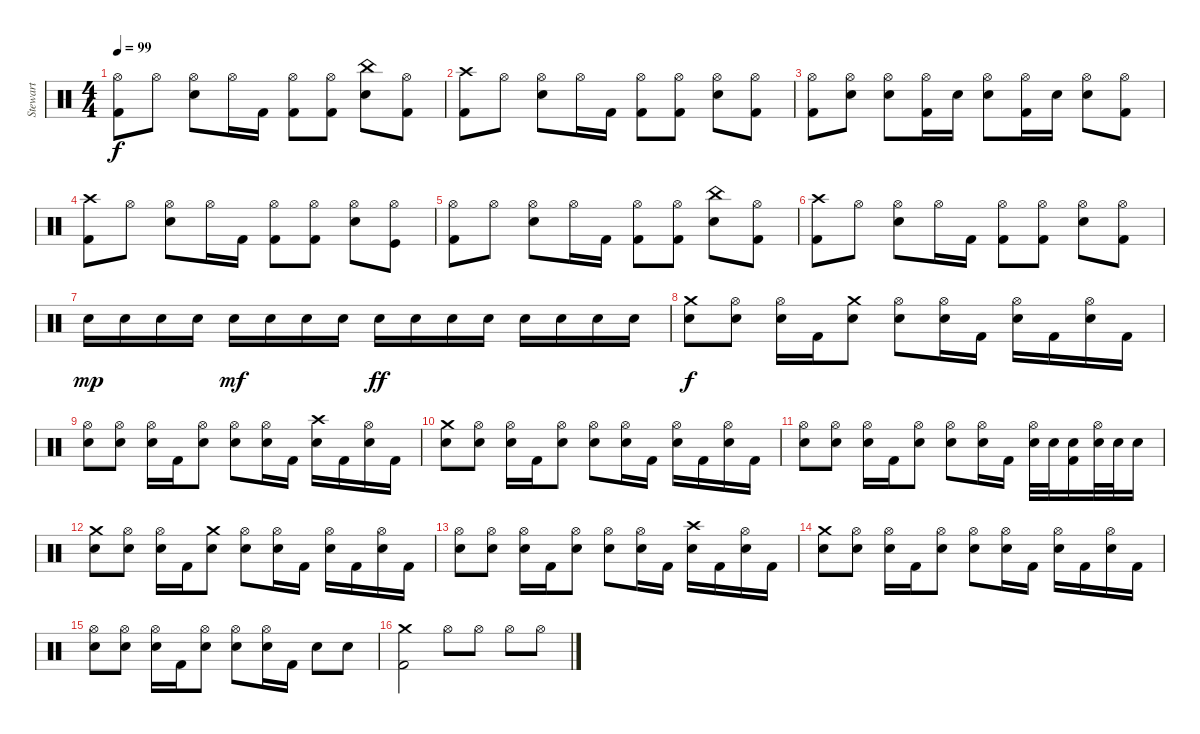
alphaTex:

\track ("Stewart" "Stewart") {instrument percussion}
\staff {score}
\articulation defaults
\ts (4 4)
\tempo 99
\clef neutral
\ks c
("Hi-Hat (open)" "Kick (hit) 2").8{dy f} "Hi-Hat (open)".8 ("Hi-Hat (open)" "Snare (hit) 2").8 "Hi-Hat (open)".16 "Kick (hit) 2".16 ("Hi-Hat (open)" "Kick (hit) 2").8 ("Hi-Hat (open)" "Kick (hit) 2").8 ("China (hit)" "Snare (hit) 2").8 ("Hi-Hat (open)" "Kick (hit) 2").8 |
("Crash high (hit)" "Kick (hit) 2").8 "Hi-Hat (open)".8 ("Hi-Hat (open)" "Snare (hit) 2").8 "Hi-Hat (open)".16 "Kick (hit) 2".16 ("Hi-Hat (open)" "Kick (hit) 2").8 ("Hi-Hat (open)" "Kick (hit) 2").8 ("Hi-Hat (open)" "Snare (hit) 2").8 ("Hi-Hat (open)" "Kick (hit) 2").8 |
("Hi-Hat (open)" "Kick (hit) 2").8 ("Hi-Hat (open)" "Snare (hit) 2").8 ("Hi-Hat (open)" "Snare (hit) 2").8 ("Hi-Hat (open)" "Kick (hit) 2").16 "Snare (hit) 2".16 ("Hi-Hat (open)" "Snare (hit) 2").8 ("Hi-Hat (open)" "Kick (hit) 2").16 "Snare (hit) 2".16 ("Hi-Hat (open)" "Snare (hit) 2").8 ("Hi-Hat (open)" "Kick (hit) 2").8 |
("Crash high (hit)" "Kick (hit) 2").8 "Hi-Hat (open)".8 ("Hi-Hat (open)" "Snare (hit) 2").8 "Hi-Hat (open)".16 "Kick (hit) 2".16 ("Hi-Hat (open)" "Kick (hit) 2").8 ("Hi-Hat (open)" "Kick (hit) 2").8 ("Hi-Hat (open)" "Snare (hit) 2").8 ("Hi-Hat (open)" "Kick (hit)").8 |
("Hi-Hat (open)" "Kick (hit) 2").8 "Hi-Hat (open)".8 ("Hi-Hat (open)" "Snare (hit) 2").8 "Hi-Hat (open)".16 "Kick (hit) 2".16 ("Hi-Hat (open)" "Kick (hit) 2").8 ("Hi-Hat (open)" "Kick (hit) 2").8 ("China (hit)" "Snare (hit) 2").8 ("Hi-Hat (open)" "Kick (hit) 2").8 |
("Crash high (hit)" "Kick (hit) 2").8 "Hi-Hat (open)".8 ("Hi-Hat (open)" "Snare (hit) 2").8 "Hi-Hat (open)".16 "Kick (hit) 2".16 ("Hi-Hat (open)" "Kick (hit) 2").8 ("Hi-Hat (open)" "Kick (hit) 2").8 ("Hi-Hat (open)" "Snare (hit) 2").8 ("Hi-Hat (open)" "Kick (hit) 2").8 |
"Snare (hit) 2".16{dy mp} "Snare (hit) 2".16 "Snare (hit) 2".16 "Snare (hit) 2".16 "Snare (hit) 2".16{dy mf} "Snare (hit) 2".16 "Snare (hit) 2".16 "Snare (hit) 2".16 "Snare (hit) 2".16{dy ff} "Snare (hit) 2".16 "Snare (hit) 2".16 "Snare (hit) 2".16 "Snare (hit) 2".16 "Snare (hit) 2".16 "Snare (hit) 2".16 "Snare (hit) 2".16 |
("Crash medium (hit)" "Snare (hit) 2").8{dy f} ("Hi-Hat (open)" "Snare (hit) 2").8 ("Hi-Hat (open)" "Snare (hit) 2").16 "Kick (hit) 2".16 ("Crash medium (hit)" "Snare (hit) 2").8 ("Hi-Hat (open)" "Snare (hit) 2").8 ("Hi-Hat (open)" "Snare (hit) 2").16 "Kick (hit) 2".16 ("Hi-Hat (open)" "Snare (hit) 2").16 "Kick (hit) 2".16 ("Hi-Hat (open)" "Snare (hit) 2").16 "Kick (hit) 2".16 |
("Hi-Hat (open)" "Snare (hit) 2").8 ("Hi-Hat (open)" "Snare (hit) 2").8 ("Hi-Hat (open)" "Snare (hit) 2").16 "Kick (hit) 2".16 ("Hi-Hat (open)" "Snare (hit) 2").8 ("Hi-Hat (open)" "Snare (hit) 2").8 ("Hi-Hat (open)" "Snare (hit) 2").16 "Kick (hit) 2".16 ("Crash high (hit)" "Snare (hit) 2").16 "Kick (hit) 2".16 ("Hi-Hat (open)" "Snare (hit) 2").16 "Kick (hit) 2".16 |
("Crash medium (hit)" "Snare (hit) 2").8 ("Hi-Hat (open)" "Snare (hit) 2").8 ("Hi-Hat (open)" "Snare (hit) 2").16 "Kick (hit) 2".16 ("Hi-Hat (open)" "Snare (hit) 2").8 ("Hi-Hat (open)" "Snare (hit) 2").8 ("Hi-Hat (open)" "Snare (hit) 2").16 "Kick (hit) 2".16 ("Hi-Hat (open)" "Snare (hit) 2").16 "Kick (hit) 2".16 ("Hi-Hat (open)" "Snare (hit) 2").16 "Kick (hit) 2".16 |
("Hi-Hat (open)" "Snare (hit) 2").8 ("Hi-Hat (open)" "Snare (hit) 2").8 ("Hi-Hat (open)" "Snare (hit) 2").16 "Kick (hit) 2".16 ("Hi-Hat (open)" "Snare (hit) 2").8 ("Hi-Hat (open)" "Snare (hit) 2").8 ("Hi-Hat (open)" "Snare (hit) 2").16 "Kick (hit) 2".16 ("Hi-Hat (open)" "Snare (hit) 2").32 "Snare (hit) 2".32 ("Snare (hit) 2" "Kick (hit) 2").16 ("Hi-Hat (open)" "Snare (hit) 2").32 "Snare (hit) 2".32 "Snare (hit) 2".16 |
("Crash medium (hit)" "Snare (hit) 2").8 ("Hi-Hat (open)" "Snare (hit) 2").8 ("Hi-Hat (open)" "Snare (hit) 2").16 "Kick (hit) 2".16 ("Crash medium (hit)" "Snare (hit) 2").8 ("Hi-Hat (open)" "Snare (hit) 2").8 ("Hi-Hat (open)" "Snare (hit) 2").16 "Kick (hit) 2".16 ("Hi-Hat (open)" "Snare (hit) 2").16 "Kick (hit) 2".16 ("Hi-Hat (open)" "Snare (hit) 2").16 "Kick (hit) 2".16 |
("Hi-Hat (open)" "Snare (hit) 2").8 ("Hi-Hat (open)" "Snare (hit) 2").8 ("Hi-Hat (open)" "Snare (hit) 2").16 "Kick (hit) 2".16 ("Hi-Hat (open)" "Snare (hit) 2").8 ("Hi-Hat (open)" "Snare (hit) 2").8 ("Hi-Hat (open)" "Snare (hit) 2").16 "Kick (hit) 2".16 ("Crash high (hit)" "Snare (hit) 2").16 "Kick (hit) 2".16 ("Hi-Hat (open)" "Snare (hit) 2").16 "Kick (hit) 2".16 |
("Crash medium (hit)" "Snare (hit) 2").8 ("Hi-Hat (open)" "Snare (hit) 2").8 ("Hi-Hat (open)" "Snare (hit) 2").16 "Kick (hit) 2".16 ("Hi-Hat (open)" "Snare (hit) 2").8 ("Hi-Hat (open)" "Snare (hit) 2").8 ("Hi-Hat (open)" "Snare (hit) 2").16 "Kick (hit) 2".16 ("Hi-Hat (open)" "Snare (hit) 2").16 "Kick (hit) 2".16 ("Hi-Hat (open)" "Snare (hit) 2").16 "Kick (hit) 2".16 |
("Hi-Hat (open)" "Snare (hit) 2").8 ("Hi-Hat (open)" "Snare (hit) 2").8 ("Hi-Hat (open)" "Snare (hit) 2").16 "Kick (hit) 2".16 ("Hi-Hat (open)" "Snare (hit) 2").8 ("Hi-Hat (open)" "Snare (hit) 2").8 ("Hi-Hat (open)" "Snare (hit) 2").16 "Kick (hit) 2".16 "Snare (hit) 2".8 "Snare (hit) 2".8 |
("Crash medium (hit)" "Kick (hit) 2").2 "Hi-Hat (open)".8 "Hi-Hat (open)".8 "Hi-Hat (open)".8 "Hi-Hat (open)".8
